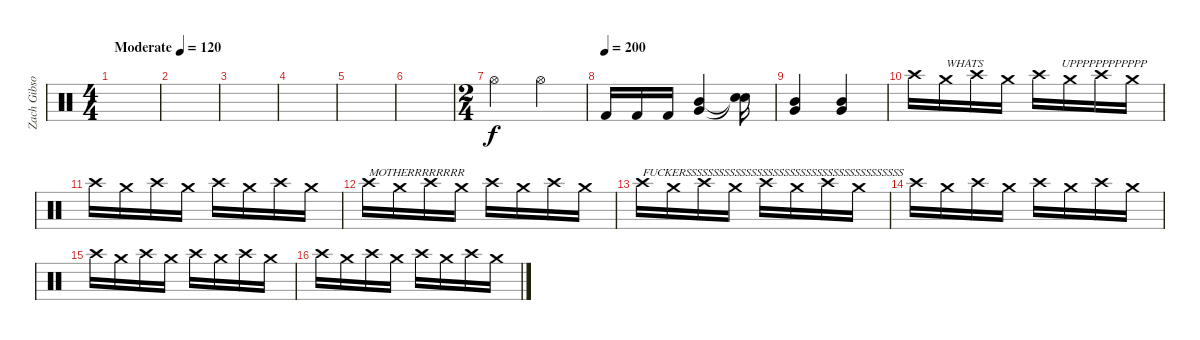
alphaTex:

\track ("Zach Gibson" "Zach Gibso") {instrument percussion}
\staff {score}
\articulation defaults
\ts (4 4)
\section ("" "")
\tempo (120 "Moderate")
\clef neutral
\ks c
|
|
|
|
|
|
\ts (2 4)
"Hi-Hat (open)".4 "Hi-Hat (open)".4 |
\tempo (200)
"Kick (hit) 2".16 "Kick (hit) 2".16 "Kick (hit) 2".16 ("Mid Tom (hit)" "Very Low Tom (hit)").4 ("Snare (hit)"{t} "Snare (hit)"{t}).16 |
("Mid Tom (hit)" "Very Low Tom (hit)").4 ("Mid Tom (hit)" "Very Low Tom (hit)").4 |
"Crash high (hit)".16 "Crash medium (hit)".16{txt "WHATS                          UPPPPPPPPPPPP"} "Crash high (hit)".16 "Crash medium (hit)".16 "Crash high (hit)".16 "Crash medium (hit)".16 "Crash high (hit)".16 "Crash medium (hit)".16 |
"Crash high (hit)".16 "Crash medium (hit)".16 "Crash high (hit)".16 "Crash medium (hit)".16 "Crash high (hit)".16 "Crash medium (hit)".16 "Crash high (hit)".16 "Crash medium (hit)".16 |
"Crash high (hit)".16{txt "MOTHERRRRRRRR"} "Crash medium (hit)".16 "Crash high (hit)".16 "Crash medium (hit)".16 "Crash high (hit)".16 "Crash medium (hit)".16 "Crash high (hit)".16 "Crash medium (hit)".16 |
"Crash high (hit)".16{txt "FUCKERSSSSSSSSSSSSSSSSSSSSSSSSSSSSSSSSSSSSSSSS"} "Crash medium (hit)".16 "Crash high (hit)".16 "Crash medium (hit)".16 "Crash high (hit)".16 "Crash medium (hit)".16 "Crash high (hit)".16 "Crash medium (hit)".16 |
"Crash high (hit)".16 "Crash medium (hit)".16 "Crash high (hit)".16 "Crash medium (hit)".16 "Crash high (hit)".16 "Crash medium (hit)".16 "Crash high (hit)".16 "Crash medium (hit)".16 |
"Crash high (hit)".16 "Crash medium (hit)".16 "Crash high (hit)".16 "Crash medium (hit)".16 "Crash high (hit)".16 "Crash medium (hit)".16 "Crash high (hit)".16 "Crash medium (hit)".16 |
"Crash high (hit)".16 "Crash medium (hit)".16 "Crash high (hit)".16 "Crash medium (hit)".16 "Crash high (hit)".16 "Crash medium (hit)".16 "Crash high (hit)".16 "Crash medium (hit)".16
